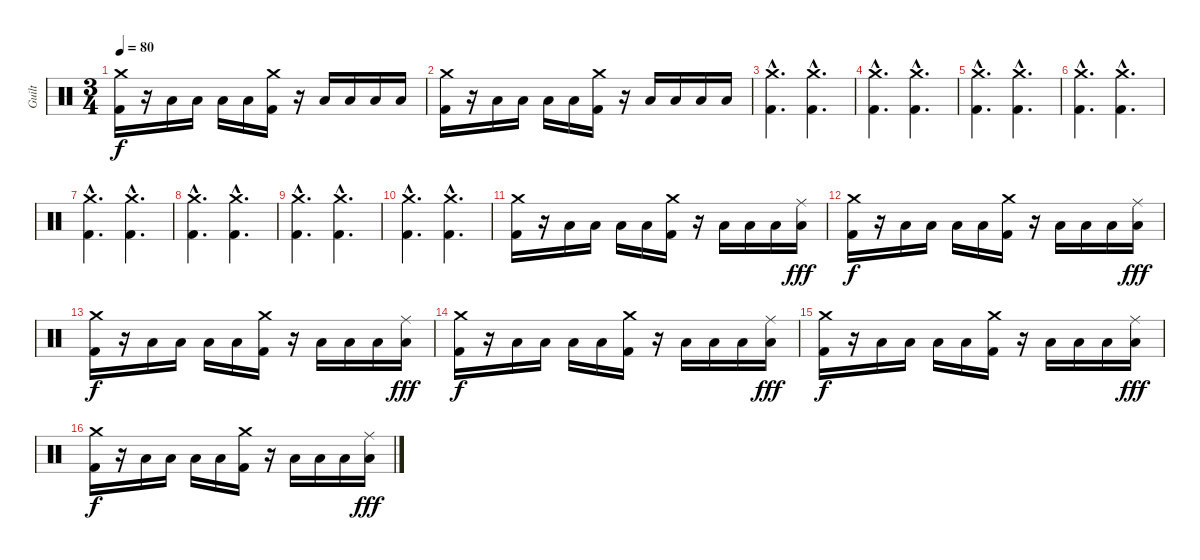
\track ("Guilt" "Guilt") {instrument percussion}
\staff {score}
\articulation defaults
\ts (3 4)
\tempo 80
\clef neutral
\ks c
("Crash medium (hit)" "Kick (hit) 2").16{dy f volume 10} r.16 "Low Tom (hit)".16 "Low Tom (hit)".16 "Low Tom (hit)".16 "Low Tom (hit)".16 ("Crash medium (hit)" "Kick (hit) 2").16 r.16 "Low Tom (hit)".16 "Low Tom (hit)".16 "Low Tom (hit)".16 "Low Tom (hit)".16 |
("Crash medium (hit)" "Kick (hit) 2").16{volume 12} r.16 "Low Tom (hit)".16 "Low Tom (hit)".16 "Low Tom (hit)".16 "Low Tom (hit)".16 ("Crash medium (hit)" "Kick (hit) 2").16 r.16 "Low Tom (hit)".16 "Low Tom (hit)".16 "Low Tom (hit)".16 "Low Tom (hit)".16 |
("Crash medium (hit)"{hac} "Kick (hit) 2"{hac}).4{d} ("Crash medium (hit)"{hac} "Kick (hit) 2"{hac}).4{d} |
("Crash medium (hit)"{hac} "Kick (hit) 2"{hac}).4{d} ("Crash medium (hit)"{hac} "Kick (hit) 2"{hac}).4{d} |
("Crash medium (hit)"{hac} "Kick (hit) 2"{hac}).4{d} ("Crash medium (hit)"{hac} "Kick (hit) 2"{hac}).4{d} |
("Crash medium (hit)"{hac} "Kick (hit) 2"{hac}).4{d} ("Crash medium (hit)"{hac} "Kick (hit) 2"{hac}).4{d} |
("Crash medium (hit)"{hac} "Kick (hit) 2"{hac}).4{d} ("Crash medium (hit)"{hac} "Kick (hit) 2"{hac}).4{d} |
("Crash medium (hit)"{hac} "Kick (hit) 2"{hac}).4{d} ("Crash medium (hit)"{hac} "Kick (hit) 2"{hac}).4{d} |
("Crash medium (hit)"{hac} "Kick (hit) 2"{hac}).4{d} ("Crash medium (hit)"{hac} "Kick (hit) 2"{hac}).4{d} |
("Crash medium (hit)"{hac} "Kick (hit) 2"{hac}).4{d} ("Crash medium (hit)"{hac} "Kick (hit) 2"{hac}).4{d} |
("Crash medium (hit)" "Kick (hit) 2").16{volume 12} r.16 "Low Tom (hit)".16 "Low Tom (hit)".16 "Low Tom (hit)".16 "Low Tom (hit)".16 ("Crash medium (hit)" "Kick (hit) 2").16 r.16 "Low Tom (hit)".16 "Low Tom (hit)".16 "Low Tom (hit)".16 ("Ride (middle)" "Low Tom (hit)").16{dy fff} |
("Crash medium (hit)" "Kick (hit) 2").16{dy f volume 12} r.16 "Low Tom (hit)".16 "Low Tom (hit)".16 "Low Tom (hit)".16 "Low Tom (hit)".16 ("Crash medium (hit)" "Kick (hit) 2").16 r.16 "Low Tom (hit)".16 "Low Tom (hit)".16 "Low Tom (hit)".16 ("Ride (middle)" "Low Tom (hit)").16{dy fff} |
("Crash medium (hit)" "Kick (hit) 2").16{dy f volume 12} r.16 "Low Tom (hit)".16 "Low Tom (hit)".16 "Low Tom (hit)".16 "Low Tom (hit)".16 ("Crash medium (hit)" "Kick (hit) 2").16 r.16 "Low Tom (hit)".16 "Low Tom (hit)".16 "Low Tom (hit)".16 ("Ride (middle)" "Low Tom (hit)").16{dy fff} |
("Crash medium (hit)" "Kick (hit) 2").16{dy f volume 12} r.16 "Low Tom (hit)".16 "Low Tom (hit)".16 "Low Tom (hit)".16 "Low Tom (hit)".16 ("Crash medium (hit)" "Kick (hit) 2").16 r.16 "Low Tom (hit)".16 "Low Tom (hit)".16 "Low Tom (hit)".16 ("Ride (middle)" "Low Tom (hit)").16{dy fff} |
("Crash medium (hit)" "Kick (hit) 2").16{dy f volume 12} r.16 "Low Tom (hit)".16 "Low Tom (hit)".16 "Low Tom (hit)".16 "Low Tom (hit)".16 ("Crash medium (hit)" "Kick (hit) 2").16 r.16 "Low Tom (hit)".16 "Low Tom (hit)".16 "Low Tom (hit)".16 ("Ride (middle)" "Low Tom (hit)").16{dy fff} |
("Crash medium (hit)" "Kick (hit) 2").16{dy f volume 12} r.16 "Low Tom (hit)".16 "Low Tom (hit)".16 "Low Tom (hit)".16 "Low Tom (hit)".16 ("Crash medium (hit)" "Kick (hit) 2").16 r.16 "Low Tom (hit)".16 "Low Tom (hit)".16 "Low Tom (hit)".16 ("Ride (middle)" "Low Tom (hit)").16{dy fff}
